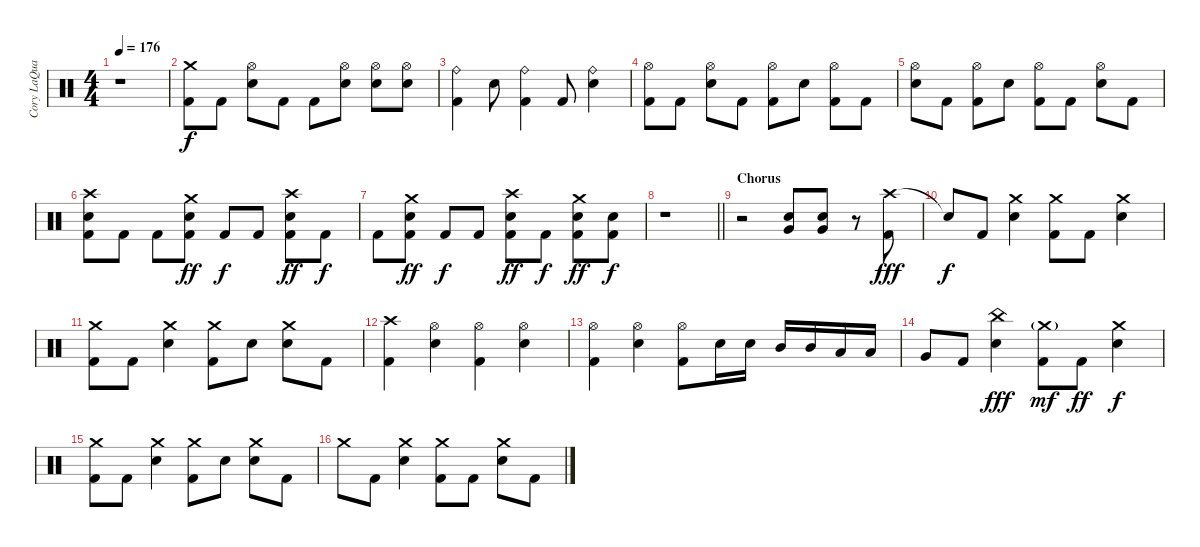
\track ("Cory LaQuay" "Cory LaQua") {instrument percussion}
\staff {score}
\articulation defaults
\ts (4 4)
\tempo 176
\clef neutral
\ks c
r.1{dy ff} |
("Crash medium (hit)" "Kick (hit) 2").8{dy f} "Kick (hit) 2".8 ("Hi-Hat (open)" "Snare (hit) 2").8 "Kick (hit) 2".8 "Kick (hit) 2".8 ("Hi-Hat (open)" "Snare (hit) 2").8 ("Hi-Hat (open)" "Snare (hit) 2").8 ("Hi-Hat (open)" "Snare (hit) 2").8 |
("Ride (bell)" "Kick (hit) 2").4 "Snare (hit) 2".8 ("Ride (bell)" "Kick (hit) 2").4 "Kick (hit) 2".8 ("Ride (bell)" "Snare (hit) 2").4 |
("Hi-Hat (open)" "Kick (hit) 2").8 "Kick (hit) 2".8 ("Hi-Hat (open)" "Snare (hit) 2").8 "Kick (hit) 2".8 ("Hi-Hat (open)" "Kick (hit) 2").8 "Snare (hit) 2".8 ("Hi-Hat (open)" "Kick (hit) 2").8 "Kick (hit) 2".8 |
("Hi-Hat (open)" "Snare (hit) 2").8 "Kick (hit) 2".8 ("Hi-Hat (open)" "Kick (hit) 2").8 "Snare (hit) 2".8 ("Hi-Hat (open)" "Kick (hit) 2").8 "Kick (hit) 2".8 ("Hi-Hat (open)" "Snare (hit) 2").8 "Kick (hit) 2".8 |
("Crash high (hit)" "Snare (hit) 2" "Kick (hit) 2").8 "Kick (hit) 2".8 "Kick (hit) 2".8 ("Crash medium (hit)" "Snare (hit) 2" "Kick (hit) 2").8{dy ff} "Kick (hit) 2".8{dy f} "Kick (hit) 2".8 ("Crash high (hit)" "Snare (hit) 2" "Kick (hit) 2").8{dy ff} "Kick (hit) 2".8{dy f} |
"Kick (hit) 2".8 ("Crash medium (hit)" "Snare (hit) 2" "Kick (hit) 2").8{dy ff} "Kick (hit) 2".8{dy f} "Kick (hit) 2".8 ("Crash high (hit)" "Snare (hit) 2" "Kick (hit) 2").8{dy ff} "Kick (hit) 2".8{dy f} ("Crash medium (hit)" "Snare (hit) 2" "Kick (hit) 2").8{dy ff} ("Snare (hit) 2" "Kick (hit) 2").8{dy f} |
\barLineRight lightlight
r.1 |
\section ("" "Chorus")
r.2 ("Very Low Tom (hit)" "Snare (hit) 2").8 ("Very Low Tom (hit)" "Snare (hit) 2").8 r.8 ("Crash high (hit)" "Kick (hit) 2").8{dy fff} |
"Snare (hit)"{t}.8{dy f} "Kick (hit) 2".8 ("Crash medium (hit)" "Snare (hit) 2").4 ("Crash medium (hit)" "Kick (hit) 2").8 "Kick (hit) 2".8 ("Crash medium (hit)" "Snare (hit) 2").4 |
("Crash medium (hit)" "Kick (hit) 2").8 "Kick (hit) 2".8 ("Crash medium (hit)" "Snare (hit) 2").4 ("Crash medium (hit)" "Kick (hit) 2").8 "Snare (hit) 2".8 ("Crash medium (hit)" "Snare (hit) 2").8 "Kick (hit) 2".8 |
("Crash high (hit)" "Kick (hit) 2").4 ("Hi-Hat (open)" "Snare (hit) 2").4 ("Hi-Hat (open)" "Kick (hit) 2").4 ("Hi-Hat (open)" "Snare (hit) 2").4 |
("Hi-Hat (open)" "Kick (hit) 2").4 ("Hi-Hat (open)" "Snare (hit) 2").4 ("Hi-Hat (open)" "Kick (hit) 2").8 "Snare (hit) 2".16 "Snare (hit) 2".16 "Mid Tom (hit)".16 "Mid Tom (hit)".16 "Low Tom (hit)".16 "Low Tom (hit)".16 |
"Very Low Tom (hit)".8 "Kick (hit) 2".8 ("China (hit)" "Snare (hit) 2").4{dy fff} ("Crash medium (hit)"{g} "Kick (hit) 2").8{dy mf} "Kick (hit) 2".8{dy ff} ("Crash medium (hit)" "Snare (hit) 2").4{dy f} |
("Crash medium (hit)" "Kick (hit) 2").8 "Kick (hit) 2".8 ("Crash medium (hit)" "Snare (hit) 2").4 ("Crash medium (hit)" "Kick (hit) 2").8 "Snare (hit) 2".8 ("Crash medium (hit)" "Snare (hit) 2").8 "Kick (hit) 2".8 |
"Crash medium (hit)".8 "Kick (hit) 2".8 ("Crash medium (hit)" "Snare (hit) 2").4 ("Crash medium (hit)" "Kick (hit) 2").8 "Kick (hit) 2".8 ("Crash medium (hit)" "Snare (hit) 2").8 "Kick (hit) 2".8
